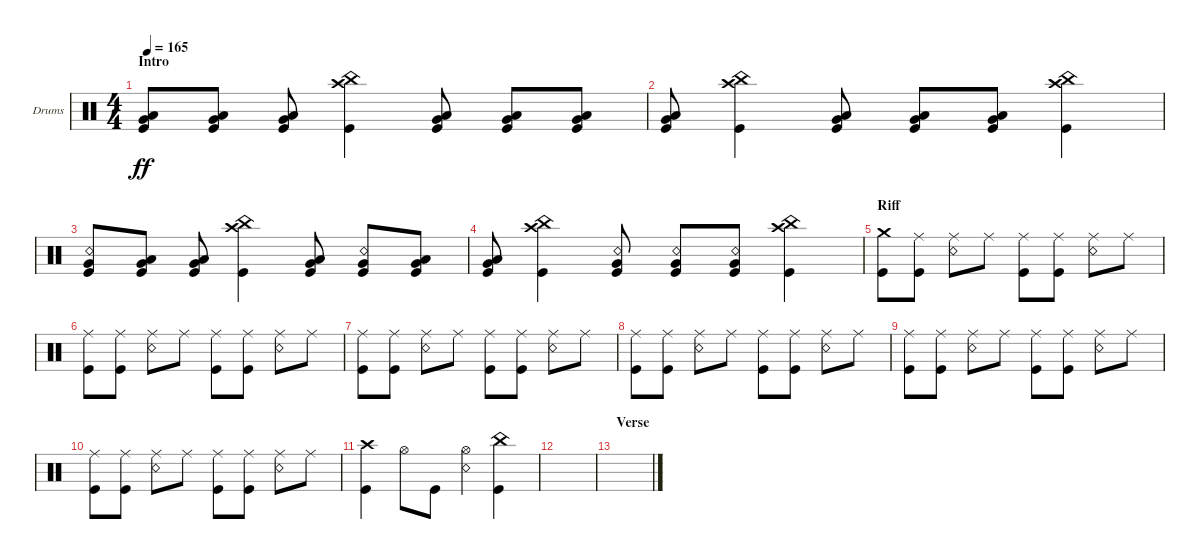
\defaultSystemsLayout 4
\bracketExtendMode groupsimilarinstruments
\firstSystemTrackNameOrientation horizontal
\otherSystemsTrackNameOrientation horizontal
\track ("Drums" "Drums") {instrument percussion}
\staff {score}
\articulation defaults
\ts (4 4)
\section ("" "Intro")
\tempo 165
\clef neutral
\scale
0.333333
\ks c
("Kick (hit)" "Very Low Tom (hit)" "Low Tom (hit)").8{dy ff} ("Kick (hit)" "Very Low Tom (hit)" "Low Tom (hit)").8 ("Kick (hit)" "Very Low Tom (hit)" "Low Tom (hit)").8 ("Kick (hit)" "China (hit)" "Crash high (hit)").4 ("Kick (hit)" "Very Low Tom (hit)" "Low Tom (hit)").8 ("Kick (hit)" "Very Low Tom (hit)" "Low Tom (hit)").8 ("Kick (hit)" "Very Low Tom (hit)" "Low Tom (hit)").8 |
\scale
0.333333 ("Kick (hit)" "Very Low Tom (hit)" "Low Tom (hit)").8 ("Kick (hit)" "China (hit)" "Crash high (hit)").4 ("Kick (hit)" "Very Low Tom (hit)" "Low Tom (hit)").8 ("Kick (hit)" "Very Low Tom (hit)" "Low Tom (hit)").8 ("Kick (hit)" "Very Low Tom (hit)" "Low Tom (hit)").8 ("Kick (hit)" "China (hit)" "Crash high (hit)").4 |
("Kick (hit)" "Very Low Tom (hit)" "Snare (rim shot)").8 ("Kick (hit)" "Very Low Tom (hit)" "Low Tom (hit)").8 ("Kick (hit)" "Low Tom (hit)" "Very Low Tom (hit)").8 ("Kick (hit)" "China (hit)" "Crash high (hit)").4 ("Kick (hit)" "Very Low Tom (hit)" "Low Tom (hit)").8 ("Kick (hit)" "Very Low Tom (hit)" "Snare (rim shot)").8 ("Kick (hit)" "Very Low Tom (hit)" "Low Tom (hit)").8 |
("Kick (hit)" "Low Tom (hit)" "Very Low Tom (hit)").8 ("Kick (hit)" "China (hit)" "Crash high (hit)").4 ("Kick (hit)" "Very Low Tom (hit)" "Snare (rim shot)").8 ("Kick (hit)" "Very Low Tom (hit)" "Snare (rim shot)").8 ("Kick (hit)" "Very Low Tom (hit)" "Snare (rim shot)").8 ("Kick (hit)" "China (hit)" "Crash high (hit)").4 |
\section ("" "Riff")
("Crash medium (hit)" "Kick (hit)").8 ("Ride (middle)" "Kick (hit)").8 ("Ride (middle)" "Snare (rim shot)").8 "Ride (middle)".8 ("Ride (middle)" "Kick (hit)").8 ("Ride (middle)" "Kick (hit)").8 ("Ride (middle)" "Snare (rim shot)").8 "Ride (middle)".8 |
("Ride (middle)" "Kick (hit)").8 ("Ride (middle)" "Kick (hit)").8 ("Ride (middle)" "Snare (rim shot)").8 "Ride (middle)".8 ("Ride (middle)" "Kick (hit)").8 ("Ride (middle)" "Kick (hit)").8 ("Ride (middle)" "Snare (rim shot)").8 "Ride (middle)".8 |
("Ride (middle)" "Kick (hit)").8 ("Ride (middle)" "Kick (hit)").8 ("Ride (middle)" "Snare (rim shot)").8 "Ride (middle)".8 ("Ride (middle)" "Kick (hit)").8 ("Ride (middle)" "Kick (hit)").8 ("Ride (middle)" "Snare (rim shot)").8 "Ride (middle)".8 |
("Ride (middle)" "Kick (hit)").8 ("Ride (middle)" "Kick (hit)").8 ("Ride (middle)" "Snare (rim shot)").8 "Ride (middle)".8 ("Ride (middle)" "Kick (hit)").8 ("Ride (middle)" "Kick (hit)").8 ("Ride (middle)" "Snare (rim shot)").8 "Ride (middle)".8 |
("Ride (middle)" "Kick (hit)").8 ("Ride (middle)" "Kick (hit)").8 ("Ride (middle)" "Snare (rim shot)").8 "Ride (middle)".8 ("Ride (middle)" "Kick (hit)").8 ("Ride (middle)" "Kick (hit)").8 ("Ride (middle)" "Snare (rim shot)").8 "Ride (middle)".8 |
("Ride (middle)" "Kick (hit)").8 ("Ride (middle)" "Kick (hit)").8 ("Ride (middle)" "Snare (rim shot)").8 "Ride (middle)".8 ("Ride (middle)" "Kick (hit)").8 ("Ride (middle)" "Kick (hit)").8 ("Ride (middle)" "Snare (rim shot)").8 "Ride (middle)".8 |
("Kick (hit)" "Crash high (hit)").4 "Hi-Hat (open)".8 "Kick (hit)".8 ("Hi-Hat (open)" "Snare (rim shot)").4 ("Kick (hit)" "China (hit)").4 |
|
\section ("" "Verse")
